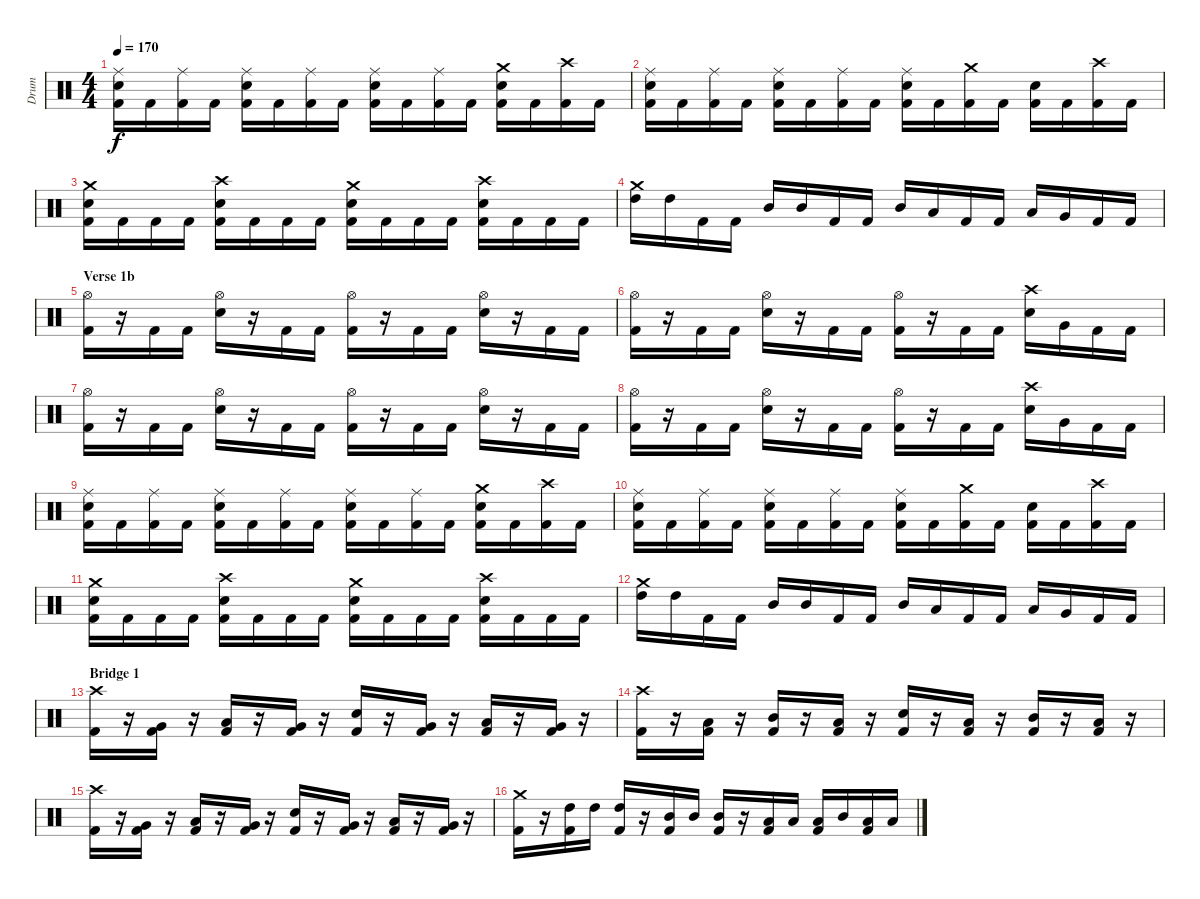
\track ("Drum" "Drum") {instrument percussion}
\staff {score}
\articulation defaults
\ts (4 4)
\tempo 170
\clef neutral
\ks c
("Electric Snare (hit)" "Kick (hit) 2" "Ride (middle)").16{dy f} "Kick (hit) 2".16 ("Kick (hit) 2" "Ride (middle)").16 "Kick (hit) 2".16 ("Kick (hit) 2" "Electric Snare (hit)" "Ride (middle)").16 "Kick (hit) 2".16 ("Kick (hit) 2" "Ride (middle)").16 "Kick (hit) 2".16 ("Kick (hit) 2" "Electric Snare (hit)" "Ride (middle)").16 "Kick (hit) 2".16 ("Kick (hit) 2" "Ride (middle)").16 "Kick (hit) 2".16 ("Kick (hit) 2" "Electric Snare (hit)" "Crash medium (hit)").16 "Kick (hit) 2".16 ("Kick (hit) 2" "Crash high (hit)").16 "Kick (hit) 2".16 |
("Kick (hit) 2" "Electric Snare (hit)" "Ride (middle)").16 "Kick (hit) 2".16 ("Kick (hit) 2" "Ride (middle)").16 "Kick (hit) 2".16 ("Electric Snare (hit)" "Kick (hit) 2" "Ride (middle)").16 "Kick (hit) 2".16 ("Kick (hit) 2" "Ride (middle)").16 "Kick (hit) 2".16 ("Electric Snare (hit)" "Kick (hit) 2" "Ride (middle)").16 "Kick (hit) 2".16 ("Kick (hit) 2" "Crash medium (hit)").16 "Kick (hit) 2".16 ("Kick (hit) 2" "Electric Snare (hit)").16 "Kick (hit) 2".16 ("Kick (hit) 2" "Crash high (hit)").16 "Kick (hit) 2".16 |
("Electric Snare (hit)" "Kick (hit) 2" "Crash medium (hit)").16 "Kick (hit) 2".16 "Kick (hit) 2".16 "Kick (hit) 2".16 ("Electric Snare (hit)" "Kick (hit) 2" "Crash high (hit)").16 "Kick (hit) 2".16 "Kick (hit) 2".16 "Kick (hit) 2".16 ("Electric Snare (hit)" "Kick (hit) 2" "Crash medium (hit)").16 "Kick (hit) 2".16 "Kick (hit) 2".16 "Kick (hit) 2".16 ("Electric Snare (hit)" "Kick (hit) 2" "Crash high (hit)").16 "Kick (hit) 2".16 "Kick (hit) 2".16 "Kick (hit) 2".16 |
("Crash medium (hit)" "High Tom (hit)").16 "High Tom (hit)".16 "Kick (hit) 2".16 "Kick (hit) 2".16 "Mid Tom (hit)".16 "Mid Tom (hit)".16 "Kick (hit) 2".16 "Kick (hit) 2".16 "Mid Tom (hit)".16 "Low Tom (hit)".16 "Kick (hit) 2".16 "Kick (hit) 2".16 "Low Tom (hit)".16 "Very Low Tom (hit)".16 "Kick (hit) 2".16 "Kick (hit) 2".16 |
\section ("" "Verse 1b")
("Kick (hit) 2" "Hi-Hat (open)").16 r.16 "Kick (hit) 2".16 "Kick (hit) 2".16 ("Electric Snare (hit)" "Hi-Hat (open)").16 r.16 "Kick (hit) 2".16 "Kick (hit) 2".16 ("Kick (hit) 2" "Hi-Hat (open)").16 r.16 "Kick (hit) 2".16 "Kick (hit) 2".16 ("Electric Snare (hit)" "Hi-Hat (open)").16 r.16 "Kick (hit) 2".16 "Kick (hit) 2".16 |
("Kick (hit) 2" "Hi-Hat (open)").16 r.16 "Kick (hit) 2".16 "Kick (hit) 2".16 ("Electric Snare (hit)" "Hi-Hat (open)").16 r.16 "Kick (hit) 2".16 "Kick (hit) 2".16 ("Kick (hit) 2" "Hi-Hat (open)").16 r.16 "Kick (hit) 2".16 "Kick (hit) 2".16 ("Electric Snare (hit)" "Crash high (hit)").16 "Very Low Tom (hit)".16 "Kick (hit) 2".16 "Kick (hit) 2".16 |
("Kick (hit) 2" "Hi-Hat (open)").16 r.16 "Kick (hit) 2".16 "Kick (hit) 2".16 ("Electric Snare (hit)" "Hi-Hat (open)").16 r.16 "Kick (hit) 2".16 "Kick (hit) 2".16 ("Kick (hit) 2" "Hi-Hat (open)").16 r.16 "Kick (hit) 2".16 "Kick (hit) 2".16 ("Electric Snare (hit)" "Hi-Hat (open)").16 r.16 "Kick (hit) 2".16 "Kick (hit) 2".16 |
("Kick (hit) 2" "Hi-Hat (open)").16 r.16 "Kick (hit) 2".16 "Kick (hit) 2".16 ("Electric Snare (hit)" "Hi-Hat (open)").16 r.16 "Kick (hit) 2".16 "Kick (hit) 2".16 ("Kick (hit) 2" "Hi-Hat (open)").16 r.16 "Kick (hit) 2".16 "Kick (hit) 2".16 ("Electric Snare (hit)" "Crash high (hit)").16 "Very Low Tom (hit)".16 "Kick (hit) 2".16 "Kick (hit) 2".16 |
("Electric Snare (hit)" "Kick (hit) 2" "Ride (middle)").16 "Kick (hit) 2".16 ("Kick (hit) 2" "Ride (middle)").16 "Kick (hit) 2".16 ("Electric Snare (hit)" "Kick (hit) 2" "Ride (middle)").16 "Kick (hit) 2".16 ("Kick (hit) 2" "Ride (middle)").16 "Kick (hit) 2".16 ("Kick (hit) 2" "Electric Snare (hit)" "Ride (middle)").16 "Kick (hit) 2".16 ("Kick (hit) 2" "Ride (middle)").16 "Kick (hit) 2".16 ("Kick (hit) 2" "Electric Snare (hit)" "Crash medium (hit)").16 "Kick (hit) 2".16 ("Kick (hit) 2" "Crash high (hit)").16 "Kick (hit) 2".16 |
("Electric Snare (hit)" "Kick (hit) 2" "Ride (middle)").16 "Kick (hit) 2".16 ("Kick (hit) 2" "Ride (middle)").16 "Kick (hit) 2".16 ("Electric Snare (hit)" "Kick (hit) 2" "Ride (middle)").16 "Kick (hit) 2".16 ("Kick (hit) 2" "Ride (middle)").16 "Kick (hit) 2".16 ("Kick (hit) 2" "Electric Snare (hit)" "Ride (middle)").16 "Kick (hit) 2".16 ("Kick (hit) 2" "Crash medium (hit)").16 "Kick (hit) 2".16 ("Electric Snare (hit)" "Kick (hit) 2").16 "Kick (hit) 2".16 ("Kick (hit) 2" "Crash high (hit)").16 "Kick (hit) 2".16 |
("Electric Snare (hit)" "Kick (hit) 2" "Crash medium (hit)").16 "Kick (hit) 2".16 "Kick (hit) 2".16 "Kick (hit) 2".16 ("Kick (hit) 2" "Electric Snare (hit)" "Crash high (hit)").16 "Kick (hit) 2".16 "Kick (hit) 2".16 "Kick (hit) 2".16 ("Kick (hit) 2" "Electric Snare (hit)" "Crash medium (hit)").16 "Kick (hit) 2".16 "Kick (hit) 2".16 "Kick (hit) 2".16 ("Kick (hit) 2" "Electric Snare (hit)" "Crash high (hit)").16 "Kick (hit) 2".16 "Kick (hit) 2".16 "Kick (hit) 2".16 |
("Crash medium (hit)" "High Tom (hit)").16 "High Tom (hit)".16 "Kick (hit) 2".16 "Kick (hit) 2".16 "Mid Tom (hit)".16 "Mid Tom (hit)".16 "Kick (hit) 2".16 "Kick (hit) 2".16 "Mid Tom (hit)".16 "Low Tom (hit)".16 "Kick (hit) 2".16 "Kick (hit) 2".16 "Low Tom (hit)".16 "Very Low Tom (hit)".16 "Kick (hit) 2".16 "Kick (hit) 2".16 |
\section ("" "Bridge 1")
("Kick (hit) 2" "Crash high (hit)").16 r.16 ("Kick (hit) 2" "Very Low Tom (hit)").16 r.16 ("Kick (hit) 2" "Low Tom (hit)").16 r.16 ("Kick (hit) 2" "Very Low Tom (hit)").16 r.16 ("Electric Snare (hit)" "Kick (hit) 2").16 r.16 ("Kick (hit) 2" "Very Low Tom (hit)").16 r.16 ("Kick (hit) 2" "Low Tom (hit)").16 r.16 ("Kick (hit) 2" "Very Low Tom (hit)").16 r.16 |
("Kick (hit) 2" "Crash high (hit)").16 r.16 ("Kick (hit) 2" "Low Tom (hit)").16 r.16 ("Kick (hit) 2" "Mid Tom (hit)").16 r.16 ("Kick (hit) 2" "Low Tom (hit)").16 r.16 ("Electric Snare (hit)" "Kick (hit) 2").16 r.16 ("Kick (hit) 2" "Low Tom (hit)").16 r.16 ("Kick (hit) 2" "Mid Tom (hit)").16 r.16 ("Kick (hit) 2" "Low Tom (hit)").16 r.16 |
("Kick (hit) 2" "Crash high (hit)").16 r.16 ("Kick (hit) 2" "Very Low Tom (hit)").16 r.16 ("Kick (hit) 2" "Low Tom (hit)").16 r.16 ("Kick (hit) 2" "Very Low Tom (hit)").16 r.16 ("Electric Snare (hit)" "Kick (hit) 2").16 r.16 ("Kick (hit) 2" "Very Low Tom (hit)").16 r.16 ("Kick (hit) 2" "Low Tom (hit)").16 r.16 ("Kick (hit) 2" "Very Low Tom (hit)").16 r.16 |
("Kick (hit) 2" "Crash medium (hit)").16 r.16 ("Kick (hit) 2" "High Tom (hit)").16 "High Tom (hit)".16 ("Kick (hit) 2" "High Tom (hit)").16 r.16 ("Kick (hit) 2" "Mid Tom (hit)").16 "Mid Tom (hit)".16 ("Kick (hit) 2" "Mid Tom (hit)").16 r.16 ("Kick (hit) 2" "Low Tom (hit)").16 "Low Tom (hit)".16 ("Kick (hit) 2" "Low Tom (hit)").16 "Mid Tom (hit)".16 ("Kick (hit) 2" "Low Tom (hit)").16 "Low Floor Tom (hit)".16
